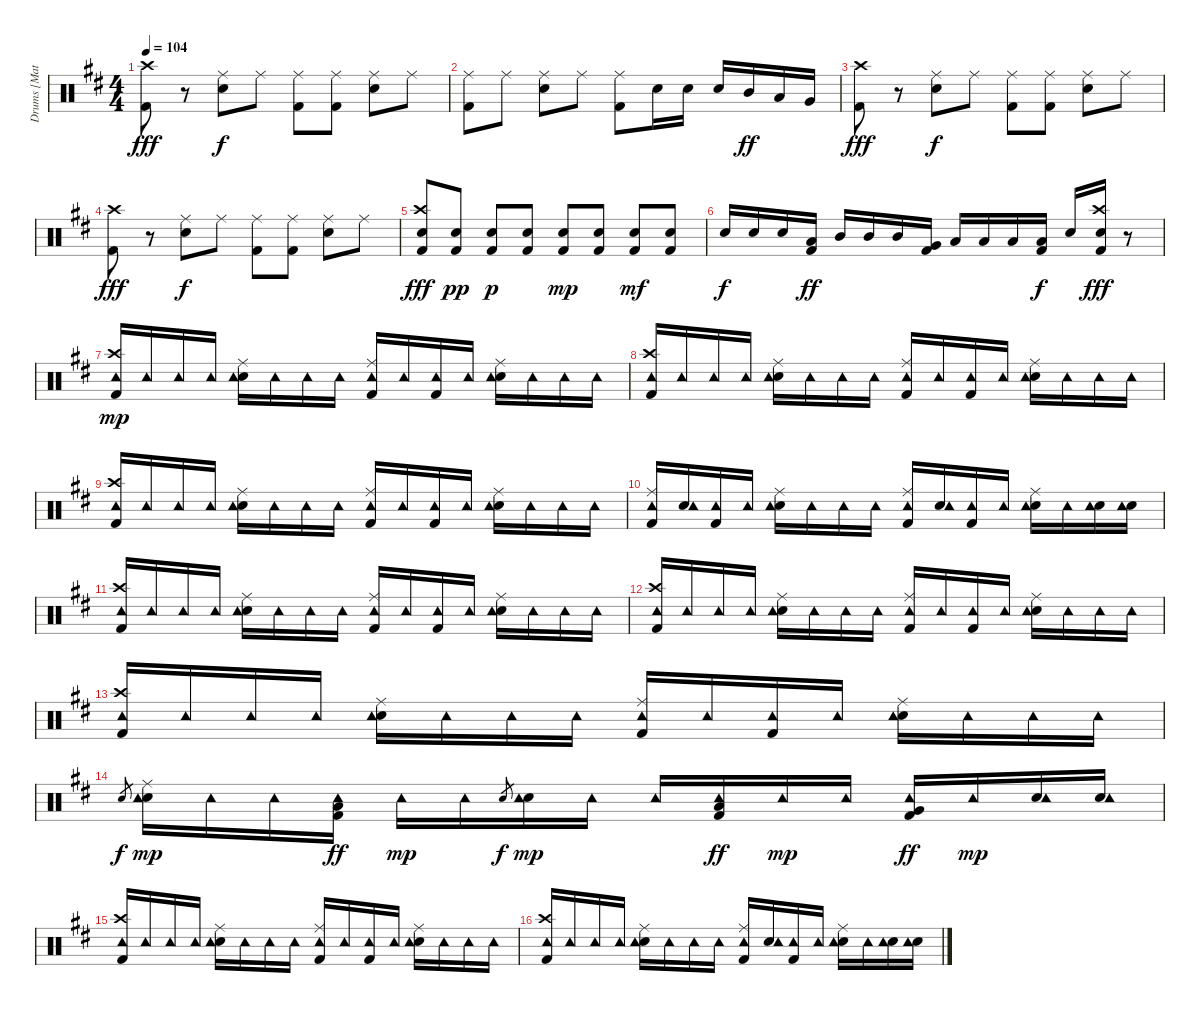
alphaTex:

\track ("Drums [Matt]" "Drums [Mat") {instrument percussion}
\staff {score}
\articulation defaults
\ts (4 4)
\tempo 104
\clef neutral
\ks d
("Kick (hit) 2" "Crash high (hit)").8{dy fff} r.8 ("Ride (middle)" "Snare (hit) 2").8{dy f} "Ride (middle)".8 ("Ride (middle)" "Kick (hit) 2").8 ("Ride (middle)" "Kick (hit) 2").8 ("Ride (middle)" "Snare (hit) 2").8 "Ride (middle)".8 |
("Ride (middle)" "Kick (hit) 2").8 "Ride (middle)".8 ("Ride (middle)" "Snare (hit) 2").8 "Ride (middle)".8 ("Ride (middle)" "Kick (hit) 2").8 "Snare (hit) 2".16 "Snare (hit) 2".16 "Snare (hit) 2".16 "Mid Tom (hit)".16{dy ff} "Low Tom (hit)".16 "Very Low Tom (hit)".16 |
("Kick (hit) 2" "Crash high (hit)").8{dy fff} r.8 ("Ride (middle)" "Snare (hit) 2").8{dy f} "Ride (middle)".8 ("Ride (middle)" "Kick (hit) 2").8 ("Ride (middle)" "Kick (hit) 2").8 ("Ride (middle)" "Snare (hit) 2").8 "Ride (middle)".8 |
("Kick (hit) 2" "Crash high (hit)").8{dy fff} r.8 ("Ride (middle)" "Snare (hit) 2").8{dy f} "Ride (middle)".8 ("Ride (middle)" "Kick (hit) 2").8 ("Ride (middle)" "Kick (hit) 2").8 ("Ride (middle)" "Snare (hit) 2").8 "Ride (middle)".8 |
("Kick (hit) 2" "Snare (hit) 2" "Crash high (hit)").8{dy fff} ("Kick (hit) 2" "Snare (hit) 2").8{dy pp} ("Kick (hit) 2" "Snare (hit) 2").8{dy p} ("Kick (hit) 2" "Snare (hit) 2").8 ("Kick (hit) 2" "Snare (hit) 2").8{dy mp} ("Kick (hit) 2" "Snare (hit) 2").8 ("Kick (hit) 2" "Snare (hit) 2").8{dy mf} ("Kick (hit) 2" "Snare (hit) 2").8 |
"Snare (hit) 2".16{dy f} "Snare (hit) 2".16 "Snare (hit) 2".16 ("Kick (hit) 2" "Low Tom (hit)").16{dy ff} "Mid Tom (hit)".16 "Mid Tom (hit)".16 "Mid Tom (hit)".16 ("Kick (hit) 2" "Very Low Tom (hit)").16 "Low Tom (hit)".16 "Low Tom (hit)".16 "Low Tom (hit)".16 ("Kick (hit) 2" "Low Floor Tom (hit)").16{dy f} "Snare (hit) 2".16 ("Kick (hit) 2" "Snare (hit) 2" "Crash high (hit)").16{dy fff} r.8 |
("Kick (hit) 2" "Crash high (hit)" "Tambourine (hit)").16{dy mp} "Tambourine (hit)".16 "Tambourine (hit)".16 "Tambourine (hit)".16 ("Ride (middle)" "Snare (hit) 2" "Tambourine (hit)").16 "Tambourine (hit)".16 "Tambourine (hit)".16 "Tambourine (hit)".16 ("Ride (middle)" "Kick (hit) 2" "Tambourine (hit)").16 "Tambourine (hit)".16 ("Kick (hit) 2" "Tambourine (hit)").16 "Tambourine (hit)".16 ("Ride (middle)" "Snare (hit) 2" "Tambourine (hit)").16 "Tambourine (hit)".16 "Tambourine (hit)".16 "Tambourine (hit)".16 |
("Kick (hit) 2" "Crash high (hit)" "Tambourine (hit)").16 "Tambourine (hit)".16 "Tambourine (hit)".16 "Tambourine (hit)".16 ("Ride (middle)" "Snare (hit) 2" "Tambourine (hit)").16 "Tambourine (hit)".16 "Tambourine (hit)".16 "Tambourine (hit)".16 ("Ride (middle)" "Kick (hit) 2" "Tambourine (hit)").16 "Tambourine (hit)".16 ("Kick (hit) 2" "Tambourine (hit)").16 "Tambourine (hit)".16 ("Ride (middle)" "Snare (hit) 2" "Tambourine (hit)").16 "Tambourine (hit)".16 "Tambourine (hit)".16 "Tambourine (hit)".16 |
("Kick (hit) 2" "Crash high (hit)" "Tambourine (hit)").16 "Tambourine (hit)".16 "Tambourine (hit)".16 "Tambourine (hit)".16 ("Ride (middle)" "Snare (hit) 2" "Tambourine (hit)").16 "Tambourine (hit)".16 "Tambourine (hit)".16 "Tambourine (hit)".16 ("Ride (middle)" "Kick (hit) 2" "Tambourine (hit)").16 "Tambourine (hit)".16 ("Kick (hit) 2" "Tambourine (hit)").16 "Tambourine (hit)".16 ("Ride (middle)" "Snare (hit) 2" "Tambourine (hit)").16 "Tambourine (hit)".16 "Tambourine (hit)".16 "Tambourine (hit)".16 |
("Ride (middle)" "Kick (hit) 2" "Tambourine (hit)").16 ("Snare (hit) 2" "Tambourine (hit)").16 ("Kick (hit) 2" "Tambourine (hit)").16 "Tambourine (hit)".16 ("Ride (middle)" "Snare (hit) 2" "Tambourine (hit)").16 "Tambourine (hit)".16 "Tambourine (hit)".16 "Tambourine (hit)".16 ("Ride (middle)" "Kick (hit) 2" "Tambourine (hit)").16 ("Snare (hit) 2" "Tambourine (hit)").16 ("Kick (hit) 2" "Tambourine (hit)").16 "Tambourine (hit)".16 ("Ride (middle)" "Snare (hit) 2" "Tambourine (hit)").16 "Tambourine (hit)".16 ("Snare (hit) 2" "Tambourine (hit)").16 ("Snare (hit) 2" "Tambourine (hit)").16 |
("Kick (hit) 2" "Crash high (hit)" "Tambourine (hit)").16 "Tambourine (hit)".16 "Tambourine (hit)".16 "Tambourine (hit)".16 ("Ride (middle)" "Snare (hit) 2" "Tambourine (hit)").16 "Tambourine (hit)".16 "Tambourine (hit)".16 "Tambourine (hit)".16 ("Ride (middle)" "Kick (hit) 2" "Tambourine (hit)").16 "Tambourine (hit)".16 ("Kick (hit) 2" "Tambourine (hit)").16 "Tambourine (hit)".16 ("Ride (middle)" "Snare (hit) 2" "Tambourine (hit)").16 "Tambourine (hit)".16 "Tambourine (hit)".16 "Tambourine (hit)".16 |
("Kick (hit) 2" "Crash high (hit)" "Tambourine (hit)").16 "Tambourine (hit)".16 "Tambourine (hit)".16 "Tambourine (hit)".16 ("Ride (middle)" "Snare (hit) 2" "Tambourine (hit)").16 "Tambourine (hit)".16 "Tambourine (hit)".16 "Tambourine (hit)".16 ("Ride (middle)" "Kick (hit) 2" "Tambourine (hit)").16 "Tambourine (hit)".16 ("Kick (hit) 2" "Tambourine (hit)").16 "Tambourine (hit)".16 ("Ride (middle)" "Snare (hit) 2" "Tambourine (hit)").16 "Tambourine (hit)".16 "Tambourine (hit)".16 "Tambourine (hit)".16 |
("Kick (hit) 2" "Crash high (hit)" "Tambourine (hit)").16 "Tambourine (hit)".16 "Tambourine (hit)".16 "Tambourine (hit)".16 ("Ride (middle)" "Snare (hit) 2" "Tambourine (hit)").16 "Tambourine (hit)".16 "Tambourine (hit)".16 "Tambourine (hit)".16 ("Ride (middle)" "Kick (hit) 2" "Tambourine (hit)").16 "Tambourine (hit)".16 ("Kick (hit) 2" "Tambourine (hit)").16 "Tambourine (hit)".16 ("Ride (middle)" "Snare (hit) 2" "Tambourine (hit)").16 "Tambourine (hit)".16 "Tambourine (hit)".16 "Tambourine (hit)".16 |
"Snare (hit) 2".8{gr dy f} ("Ride (middle)" "Snare (hit) 2" "Tambourine (hit)").16{dy mp} "Tambourine (hit)".16 "Tambourine (hit)".16 ("Kick (hit) 2" "Tambourine (hit)" "Low Tom (hit)").16{dy ff} "Tambourine (hit)".16{dy mp} "Tambourine (hit)".16 "Snare (hit) 2".8{gr dy f} ("Snare (hit) 2" "Tambourine (hit)").16{dy mp} "Tambourine (hit)".16 "Tambourine (hit)".16 ("Kick (hit) 2" "Tambourine (hit)" "Low Tom (hit)").16{dy ff} "Tambourine (hit)".16{dy mp} "Tambourine (hit)".16 ("Kick (hit) 2" "Tambourine (hit)" "Very Low Tom (hit)").16{dy ff} "Tambourine (hit)".16{dy mp} ("Snare (hit) 2" "Tambourine (hit)").16 ("Snare (hit) 2" "Tambourine (hit)").16 |
("Kick (hit) 2" "Crash high (hit)" "Tambourine (hit)").16 "Tambourine (hit)".16 "Tambourine (hit)".16 "Tambourine (hit)".16 ("Ride (middle)" "Snare (hit) 2" "Tambourine (hit)").16 "Tambourine (hit)".16 "Tambourine (hit)".16 "Tambourine (hit)".16 ("Ride (middle)" "Kick (hit) 2" "Tambourine (hit)").16 "Tambourine (hit)".16 ("Kick (hit) 2" "Tambourine (hit)").16 "Tambourine (hit)".16 ("Ride (middle)" "Snare (hit) 2" "Tambourine (hit)").16 "Tambourine (hit)".16 "Tambourine (hit)".16 "Tambourine (hit)".16 |
("Kick (hit) 2" "Crash high (hit)" "Tambourine (hit)").16 "Tambourine (hit)".16 "Tambourine (hit)".16 "Tambourine (hit)".16 ("Ride (middle)" "Snare (hit) 2" "Tambourine (hit)").16 "Tambourine (hit)".16 "Tambourine (hit)".16 "Tambourine (hit)".16 ("Ride (middle)" "Kick (hit) 2" "Tambourine (hit)").16 ("Snare (hit) 2" "Tambourine (hit)").16 ("Kick (hit) 2" "Tambourine (hit)").16 "Tambourine (hit)".16 ("Ride (middle)" "Snare (hit) 2" "Tambourine (hit)").16 "Tambourine (hit)".16 ("Snare (hit) 2" "Tambourine (hit)").16 ("Snare (hit) 2" "Tambourine (hit)").16
